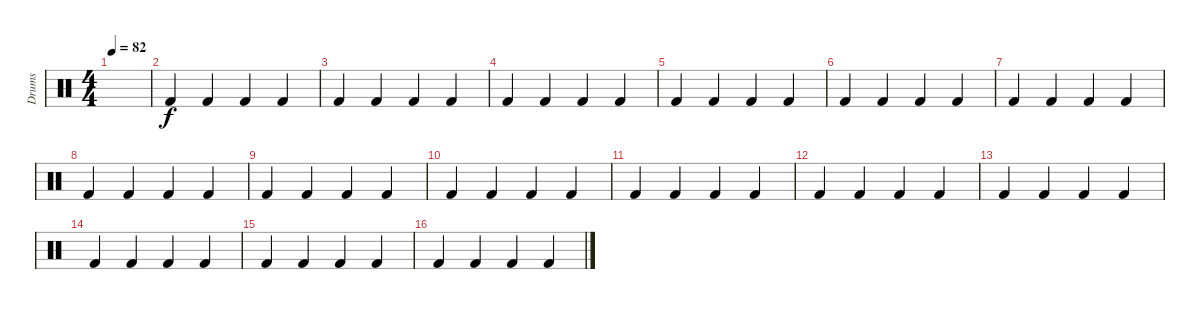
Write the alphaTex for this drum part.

\track ("Drums" "Drums") {instrument percussion}
\staff {score}
\articulation defaults
\ts (4 4)
\tempo 82
\clef neutral
\ks c
|
"Kick (hit) 2".4 "Kick (hit) 2".4 "Kick (hit) 2".4 "Kick (hit) 2".4 |
"Kick (hit) 2".4 "Kick (hit) 2".4 "Kick (hit) 2".4 "Kick (hit) 2".4 |
"Kick (hit) 2".4 "Kick (hit) 2".4 "Kick (hit) 2".4 "Kick (hit) 2".4 |
"Kick (hit) 2".4 "Kick (hit) 2".4 "Kick (hit) 2".4 "Kick (hit) 2".4 |
"Kick (hit) 2".4 "Kick (hit) 2".4 "Kick (hit) 2".4 "Kick (hit) 2".4 |
"Kick (hit) 2".4 "Kick (hit) 2".4 "Kick (hit) 2".4 "Kick (hit) 2".4 |
"Kick (hit) 2".4 "Kick (hit) 2".4 "Kick (hit) 2".4 "Kick (hit) 2".4 |
"Kick (hit) 2".4 "Kick (hit) 2".4 "Kick (hit) 2".4 "Kick (hit) 2".4 |
"Kick (hit) 2".4 "Kick (hit) 2".4 "Kick (hit) 2".4 "Kick (hit) 2".4 |
"Kick (hit) 2".4 "Kick (hit) 2".4 "Kick (hit) 2".4 "Kick (hit) 2".4 |
"Kick (hit) 2".4 "Kick (hit) 2".4 "Kick (hit) 2".4 "Kick (hit) 2".4 |
"Kick (hit) 2".4 "Kick (hit) 2".4 "Kick (hit) 2".4 "Kick (hit) 2".4 |
"Kick (hit) 2".4 "Kick (hit) 2".4 "Kick (hit) 2".4 "Kick (hit) 2".4 |
"Kick (hit) 2".4 "Kick (hit) 2".4 "Kick (hit) 2".4 "Kick (hit) 2".4 |
"Kick (hit) 2".4 "Kick (hit) 2".4 "Kick (hit) 2".4 "Kick (hit) 2".4
